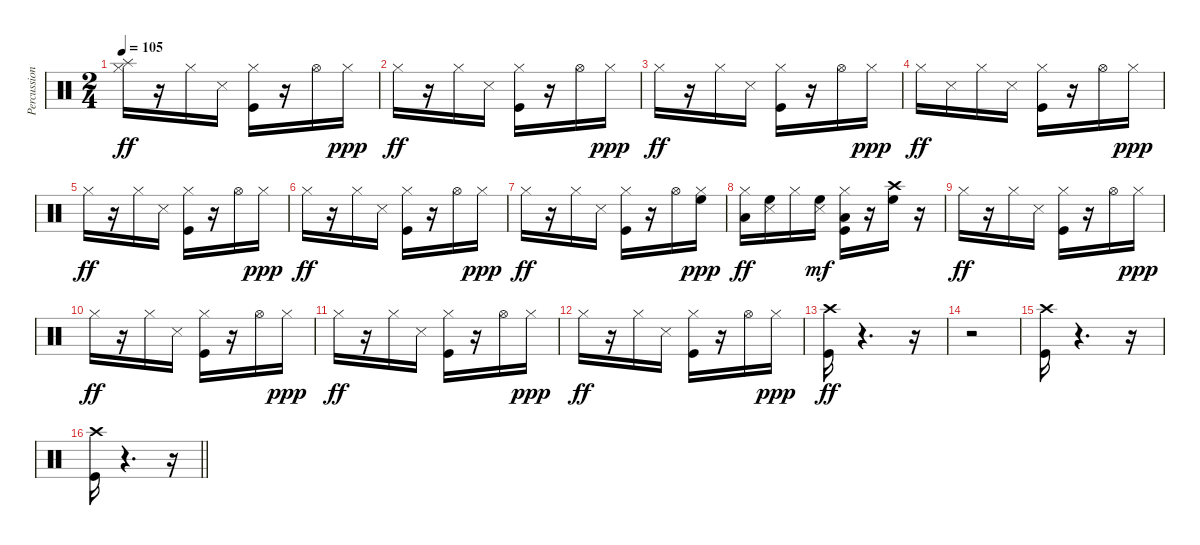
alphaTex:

\track ("Percussion" "Percussion") {instrument percussion}
\staff {score}
\articulation defaults
\ts (2 4)
\tempo 105
\clef neutral
\ks c
("Hi-Hat (closed)" "Splash (hit)").16{dy ff} r.16 "Hi-Hat (closed)".16 "Snare (side stick) 3".16 ("Kick (hit)" "Hi-Hat (closed)").16 r.16 "Hi-Hat (open)".16 "Hi-Hat (closed)".16{dy ppp} |
"Hi-Hat (closed)".16{dy ff} r.16 "Hi-Hat (closed)".16 "Snare (side stick) 3".16 ("Kick (hit)" "Hi-Hat (closed)").16 r.16 "Hi-Hat (open)".16 "Hi-Hat (closed)".16{dy ppp} |
"Hi-Hat (closed)".16{dy ff} r.16 "Hi-Hat (closed)".16 "Snare (side stick) 3".16 ("Kick (hit)" "Hi-Hat (closed)").16 r.16 "Hi-Hat (open)".16 "Hi-Hat (closed)".16{dy ppp} |
"Hi-Hat (closed)".16{dy ff} "Snare (side stick) 3".16 "Hi-Hat (closed)".16 "Snare (side stick) 3".16 ("Kick (hit)" "Hi-Hat (closed)").16 r.16 "Hi-Hat (open)".16 "Hi-Hat (closed)".16{dy ppp} |
"Hi-Hat (closed)".16{dy ff} r.16 "Hi-Hat (closed)".16 "Snare (side stick) 3".16 ("Kick (hit)" "Hi-Hat (closed)").16 r.16 "Hi-Hat (open)".16 "Hi-Hat (closed)".16{dy ppp} |
"Hi-Hat (closed)".16{dy ff} r.16 "Hi-Hat (closed)".16 "Snare (side stick) 3".16 ("Kick (hit)" "Hi-Hat (closed)").16 r.16 "Hi-Hat (open)".16 "Hi-Hat (closed)".16{dy ppp} |
"Hi-Hat (closed)".16{dy ff} r.16 "Hi-Hat (closed)".16 "Snare (side stick) 3".16 ("Kick (hit)" "Hi-Hat (closed)").16 r.16 "Hi-Hat (open)".16 ("Hi-Hat (closed)" "High Floor Tom (hit)").16{dy ppp} |
("Hi-Hat (closed)" "Low Tom (hit)").16{dy ff} ("Snare (side stick) 3" "High Floor Tom (hit)").16 "Hi-Hat (closed)".16 ("Snare (side stick) 3" "High Floor Tom (hit)").16{dy mf} ("Kick (hit)" "Hi-Hat (closed)" "Low Tom (hit)").16 r.16 ("Crash high (hit)" "High Floor Tom (hit)").16 r.16 |
"Hi-Hat (closed)".16{dy ff} r.16 "Hi-Hat (closed)".16 "Snare (side stick) 3".16 ("Kick (hit)" "Hi-Hat (closed)").16 r.16 "Hi-Hat (open)".16 "Hi-Hat (closed)".16{dy ppp} |
"Hi-Hat (closed)".16{dy ff} r.16 "Hi-Hat (closed)".16 "Snare (side stick) 3".16 ("Kick (hit)" "Hi-Hat (closed)").16 r.16 "Hi-Hat (open)".16 "Hi-Hat (closed)".16{dy ppp} |
"Hi-Hat (closed)".16{dy ff} r.16 "Hi-Hat (closed)".16 "Snare (side stick) 3".16 ("Kick (hit)" "Hi-Hat (closed)").16 r.16 "Hi-Hat (open)".16 "Hi-Hat (closed)".16{dy ppp} |
"Hi-Hat (closed)".16{dy ff} r.16 "Hi-Hat (closed)".16 "Snare (side stick) 3".16 ("Kick (hit)" "Hi-Hat (closed)").16 r.16 "Hi-Hat (open)".16 "Hi-Hat (closed)".16{dy ppp} |
("Kick (hit)" "Crash high (hit)").16{dy ff} r.4{d} r.16 |
r.2 |
("Kick (hit)" "Crash high (hit)").16 r.4{d} r.16 |
\barLineRight lightlight
("Kick (hit)" "Crash high (hit)").16 r.4{d} r.16
